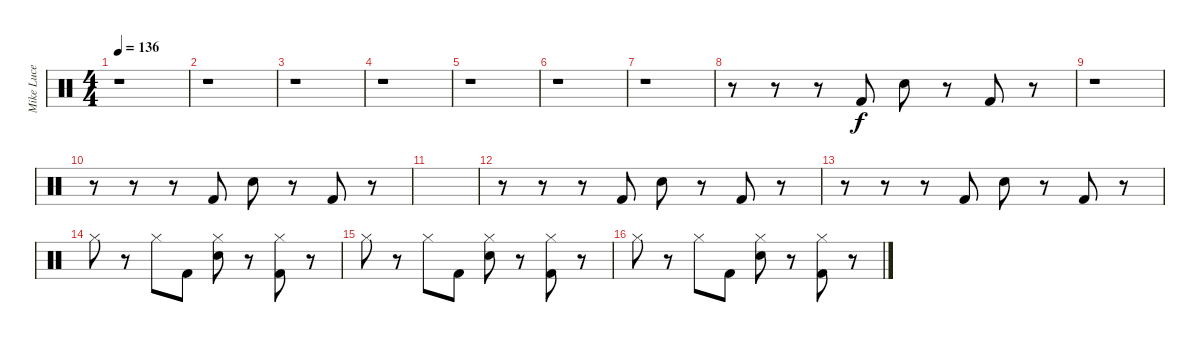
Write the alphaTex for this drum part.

\track ("Mike Luce" "Mike Luce") {instrument percussion}
\staff {score}
\articulation defaults
\ts (4 4)
\tempo 136
\clef neutral
\ks c
r.1{dy f} |
r.1 |
r.1 |
r.1 |
r.1 |
r.1 |
r.1 |
r.8 r.8 r.8 "Kick (hit) 2".8 "Hand Clap (hit)".8 r.8 "Kick (hit) 2".8 r.8 |
r.1 |
r.8 r.8 r.8 "Kick (hit) 2".8 "Hand Clap (hit)".8 r.8 "Kick (hit) 2".8 r.8 |
|
r.8 r.8 r.8 "Kick (hit) 2".8 "Hand Clap (hit)".8 r.8 "Kick (hit) 2".8 r.8 |
r.8 r.8 r.8 "Kick (hit) 2".8 "Hand Clap (hit)".8 r.8 "Kick (hit) 2".8 r.8 |
"Hi-Hat (closed)".8 r.8 "Hi-Hat (closed)".8 "Kick (hit) 2".8 ("Hi-Hat (closed)" "Hand Clap (hit)").8 r.8 ("Hi-Hat (closed)" "Kick (hit) 2").8 r.8 |
"Hi-Hat (closed)".8 r.8 "Hi-Hat (closed)".8 "Kick (hit) 2".8 ("Hi-Hat (closed)" "Hand Clap (hit)").8 r.8 ("Hi-Hat (closed)" "Kick (hit) 2").8 r.8 |
"Hi-Hat (closed)".8 r.8 "Hi-Hat (closed)".8 "Kick (hit) 2".8 ("Hi-Hat (closed)" "Hand Clap (hit)").8 r.8 ("Hi-Hat (closed)" "Kick (hit) 2").8 r.8
